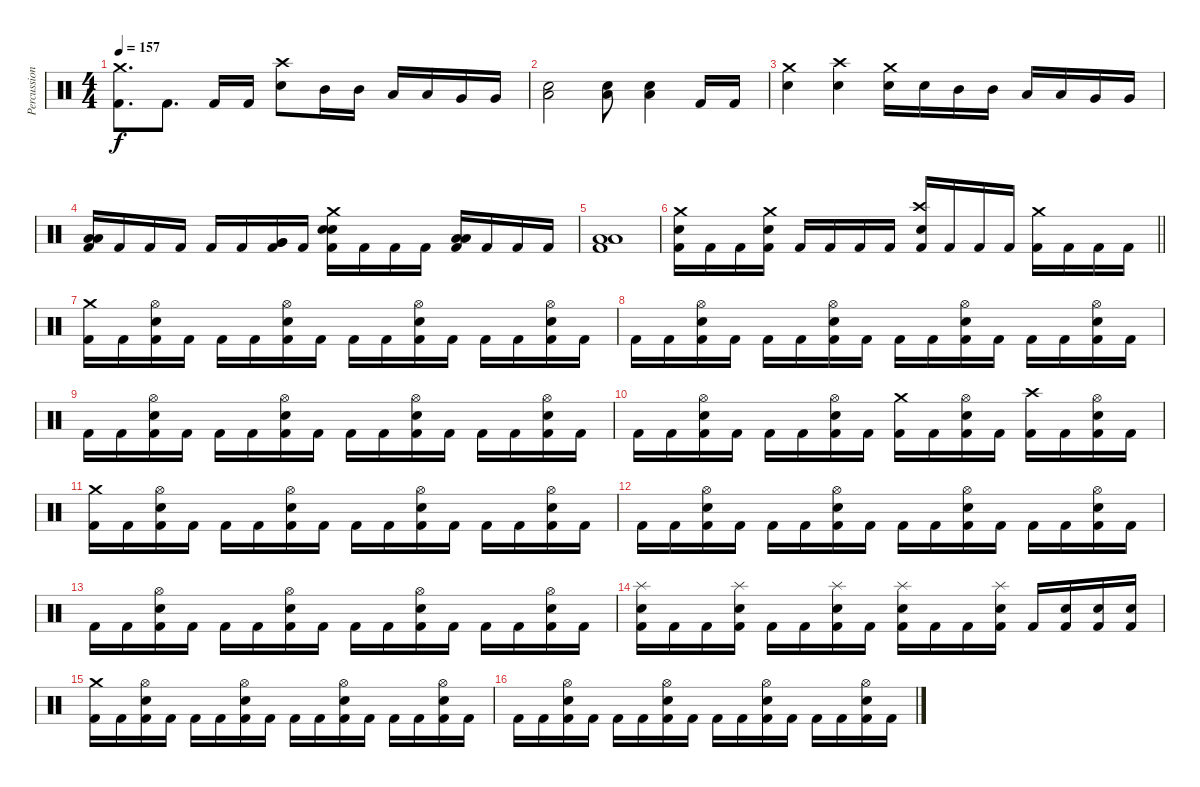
\track ("Percussion" "Percussion") {instrument percussion}
\staff {score}
\articulation defaults
\ts (4 4)
\tempo 157
\clef neutral
\ks c
("Crash medium (hit)" "Kick (hit) 2").8{d dy f} "Kick (hit) 2".8{d} "Kick (hit) 2".16 "Kick (hit) 2".16 ("Crash high (hit)" "Electric Snare (hit)").8 "Mid Tom (hit)".16 "Mid Tom (hit)".16 "Low Tom (hit)".16 "Low Tom (hit)".16 "Very Low Tom (hit)".16 "Very Low Tom (hit)".16 |
("Low Floor Tom (hit)" "Electric Snare (hit)").2 ("Low Floor Tom (hit)" "Electric Snare (hit)").8 ("Low Floor Tom (hit)" "Electric Snare (hit)").4 "Kick (hit) 2".16 "Kick (hit) 2".16 |
("Crash medium (hit)" "Electric Snare (hit)").4 ("Crash high (hit)" "Electric Snare (hit)").4 ("Crash medium (hit)" "Electric Snare (hit)").16 "Electric Snare (hit)".16 "Mid Tom (hit)".16 "Mid Tom (hit)".16 "Low Tom (hit)".16 "Low Tom (hit)".16 "Very Low Tom (hit)".16 "Very Low Tom (hit)".16 |
("Low Floor Tom (hit)" "Low Floor Tom (hit)" "Kick (hit) 2").16 "Kick (hit) 2".16 "Kick (hit) 2".16 "Kick (hit) 2".16 "Kick (hit) 2".16 "Kick (hit) 2".16 ("Very Low Tom (hit)" "Very Low Tom (hit)" "Kick (hit) 2").16 "Kick (hit) 2".16 ("Crash medium (hit)" "Electric Snare (hit)" "Electric Snare (hit)" "Kick (hit) 2").16 "Kick (hit) 2".16 "Kick (hit) 2".16 "Kick (hit) 2".16 ("Low Floor Tom (hit)" "Low Floor Tom (hit)" "Kick (hit) 2").16 "Kick (hit) 2".16 "Kick (hit) 2".16 "Kick (hit) 2".16 |
("Low Floor Tom (hit)" "Low Floor Tom (hit)" "Kick (hit) 2").1 |
\barLineRight lightlight
("Crash medium (hit)" "Electric Snare (hit)" "Kick (hit) 2").16 "Kick (hit) 2".16 "Kick (hit) 2".16 ("Crash medium (hit)" "Electric Snare (hit)" "Kick (hit) 2").16 "Kick (hit) 2".16 "Kick (hit) 2".16 "Kick (hit) 2".16 "Kick (hit) 2".16 ("Crash high (hit)" "Electric Snare (hit)" "Kick (hit) 2").16 "Kick (hit) 2".16 "Kick (hit) 2".16 "Kick (hit) 2".16 ("Crash medium (hit)" "Kick (hit) 2").16 "Kick (hit) 2".16 "Kick (hit) 2".16 "Kick (hit) 2".16 |
("Crash medium (hit)" "Kick (hit) 2").16 "Kick (hit) 2".16 ("Hi-Hat (open)" "Electric Snare (hit)" "Kick (hit) 2").16 "Kick (hit) 2".16 "Kick (hit) 2".16 "Kick (hit) 2".16 ("Hi-Hat (open)" "Electric Snare (hit)" "Kick (hit) 2").16 "Kick (hit) 2".16 "Kick (hit) 2".16 "Kick (hit) 2".16 ("Hi-Hat (open)" "Electric Snare (hit)" "Kick (hit) 2").16 "Kick (hit) 2".16 "Kick (hit) 2".16 "Kick (hit) 2".16 ("Hi-Hat (open)" "Electric Snare (hit)" "Kick (hit) 2").16 "Kick (hit) 2".16 |
"Kick (hit) 2".16 "Kick (hit) 2".16 ("Hi-Hat (open)" "Electric Snare (hit)" "Kick (hit) 2").16 "Kick (hit) 2".16 "Kick (hit) 2".16 "Kick (hit) 2".16 ("Hi-Hat (open)" "Electric Snare (hit)" "Kick (hit) 2").16 "Kick (hit) 2".16 "Kick (hit) 2".16 "Kick (hit) 2".16 ("Hi-Hat (open)" "Electric Snare (hit)" "Kick (hit) 2").16 "Kick (hit) 2".16 "Kick (hit) 2".16 "Kick (hit) 2".16 ("Hi-Hat (open)" "Electric Snare (hit)" "Kick (hit) 2").16 "Kick (hit) 2".16 |
"Kick (hit) 2".16 "Kick (hit) 2".16 ("Hi-Hat (open)" "Electric Snare (hit)" "Kick (hit) 2").16 "Kick (hit) 2".16 "Kick (hit) 2".16 "Kick (hit) 2".16 ("Hi-Hat (open)" "Electric Snare (hit)" "Kick (hit) 2").16 "Kick (hit) 2".16 "Kick (hit) 2".16 "Kick (hit) 2".16 ("Hi-Hat (open)" "Electric Snare (hit)" "Kick (hit) 2").16 "Kick (hit) 2".16 "Kick (hit) 2".16 "Kick (hit) 2".16 ("Hi-Hat (open)" "Electric Snare (hit)" "Kick (hit) 2").16 "Kick (hit) 2".16 |
"Kick (hit) 2".16 "Kick (hit) 2".16 ("Hi-Hat (open)" "Electric Snare (hit)" "Kick (hit) 2").16 "Kick (hit) 2".16 "Kick (hit) 2".16 "Kick (hit) 2".16 ("Hi-Hat (open)" "Electric Snare (hit)" "Kick (hit) 2").16 "Kick (hit) 2".16 ("Crash medium (hit)" "Kick (hit) 2").16 "Kick (hit) 2".16 ("Hi-Hat (open)" "Electric Snare (hit)" "Kick (hit) 2").16 "Kick (hit) 2".16 ("Crash high (hit)" "Kick (hit) 2").16 "Kick (hit) 2".16 ("Hi-Hat (open)" "Electric Snare (hit)" "Kick (hit) 2").16 "Kick (hit) 2".16 |
("Crash medium (hit)" "Kick (hit) 2").16 "Kick (hit) 2".16 ("Hi-Hat (open)" "Electric Snare (hit)" "Kick (hit) 2").16 "Kick (hit) 2".16 "Kick (hit) 2".16 "Kick (hit) 2".16 ("Hi-Hat (open)" "Electric Snare (hit)" "Kick (hit) 2").16 "Kick (hit) 2".16 "Kick (hit) 2".16 "Kick (hit) 2".16 ("Hi-Hat (open)" "Electric Snare (hit)" "Kick (hit) 2").16 "Kick (hit) 2".16 "Kick (hit) 2".16 "Kick (hit) 2".16 ("Hi-Hat (open)" "Electric Snare (hit)" "Kick (hit) 2").16 "Kick (hit) 2".16 |
"Kick (hit) 2".16 "Kick (hit) 2".16 ("Hi-Hat (open)" "Electric Snare (hit)" "Kick (hit) 2").16 "Kick (hit) 2".16 "Kick (hit) 2".16 "Kick (hit) 2".16 ("Hi-Hat (open)" "Electric Snare (hit)" "Kick (hit) 2").16 "Kick (hit) 2".16 "Kick (hit) 2".16 "Kick (hit) 2".16 ("Hi-Hat (open)" "Electric Snare (hit)" "Kick (hit) 2").16 "Kick (hit) 2".16 "Kick (hit) 2".16 "Kick (hit) 2".16 ("Hi-Hat (open)" "Electric Snare (hit)" "Kick (hit) 2").16 "Kick (hit) 2".16 |
"Kick (hit) 2".16 "Kick (hit) 2".16 ("Hi-Hat (open)" "Electric Snare (hit)" "Kick (hit) 2").16 "Kick (hit) 2".16 "Kick (hit) 2".16 "Kick (hit) 2".16 ("Hi-Hat (open)" "Electric Snare (hit)" "Kick (hit) 2").16 "Kick (hit) 2".16 "Kick (hit) 2".16 "Kick (hit) 2".16 ("Hi-Hat (open)" "Electric Snare (hit)" "Kick (hit) 2").16 "Kick (hit) 2".16 "Kick (hit) 2".16 "Kick (hit) 2".16 ("Hi-Hat (open)" "Electric Snare (hit)" "Kick (hit) 2").16 "Kick (hit) 2".16 |
("Splash (hit)" "Electric Snare (hit)" "Kick (hit) 2").16 "Kick (hit) 2".16 "Kick (hit) 2".16 ("Splash (hit)" "Electric Snare (hit)" "Kick (hit) 2").16 "Kick (hit) 2".16 "Kick (hit) 2".16 ("Splash (hit)" "Electric Snare (hit)" "Kick (hit) 2").16 "Kick (hit) 2".16 ("Splash (hit)" "Electric Snare (hit)" "Kick (hit) 2").16 "Kick (hit) 2".16 "Kick (hit) 2".16 ("Splash (hit)" "Electric Snare (hit)" "Kick (hit) 2").16 "Kick (hit) 2".16 ("Electric Snare (hit)" "Kick (hit) 2").16 ("Electric Snare (hit)" "Kick (hit) 2").16 ("Electric Snare (hit)" "Kick (hit) 2").16 |
("Crash medium (hit)" "Kick (hit) 2").16 "Kick (hit) 2".16 ("Hi-Hat (open)" "Electric Snare (hit)" "Kick (hit) 2").16 "Kick (hit) 2".16 "Kick (hit) 2".16 "Kick (hit) 2".16 ("Hi-Hat (open)" "Electric Snare (hit)" "Kick (hit) 2").16 "Kick (hit) 2".16 "Kick (hit) 2".16 "Kick (hit) 2".16 ("Hi-Hat (open)" "Electric Snare (hit)" "Kick (hit) 2").16 "Kick (hit) 2".16 "Kick (hit) 2".16 "Kick (hit) 2".16 ("Hi-Hat (open)" "Electric Snare (hit)" "Kick (hit) 2").16 "Kick (hit) 2".16 |
"Kick (hit) 2".16 "Kick (hit) 2".16 ("Hi-Hat (open)" "Electric Snare (hit)" "Kick (hit) 2").16 "Kick (hit) 2".16 "Kick (hit) 2".16 "Kick (hit) 2".16 ("Hi-Hat (open)" "Electric Snare (hit)" "Kick (hit) 2").16 "Kick (hit) 2".16 "Kick (hit) 2".16 "Kick (hit) 2".16 ("Hi-Hat (open)" "Electric Snare (hit)" "Kick (hit) 2").16 "Kick (hit) 2".16 "Kick (hit) 2".16 "Kick (hit) 2".16 ("Hi-Hat (open)" "Electric Snare (hit)" "Kick (hit) 2").16 "Kick (hit) 2".16
